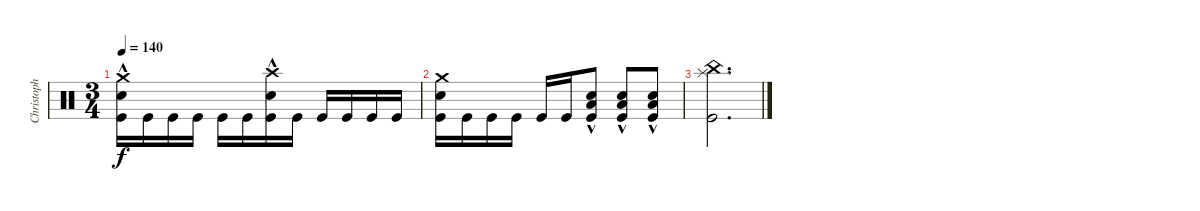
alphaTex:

\track ("Christoph \"Doom\" Schneider" "Christoph ") {instrument percussion}
\staff {score}
\articulation defaults
\ts (3 4)
\tempo 140
\clef neutral
\ks c
("Crash medium (hit)" "Kick (hit)" "Snare (hit) 2"{hac}).16{dy f} "Kick (hit)".16 "Kick (hit)".16 "Kick (hit)".16 "Kick (hit)".16 "Kick (hit)".16 ("Crash high (hit)" "Kick (hit)" "Snare (hit) 2"{hac}).16 "Kick (hit)".16 "Kick (hit)".16 "Kick (hit)".16 "Kick (hit)".16 "Kick (hit)".16 |
("Crash medium (hit)" "Kick (hit)" "Snare (hit) 2").16 "Kick (hit)".16 "Kick (hit)".16 "Kick (hit)".16 "Kick (hit)".16 "Kick (hit)".16 ("Kick (hit)" "Snare (hit) 2"{hac} "Low Floor Tom (hit)"{hac}).8 ("Kick (hit)" "Snare (hit) 2"{hac} "Low Floor Tom (hit)"{hac}).8 ("Kick (hit)" "Snare (hit) 2"{hac} "Low Floor Tom (hit)"{hac}).8 |
("Splash (hit)" "Kick (hit)" "China (hit)").2{d}
